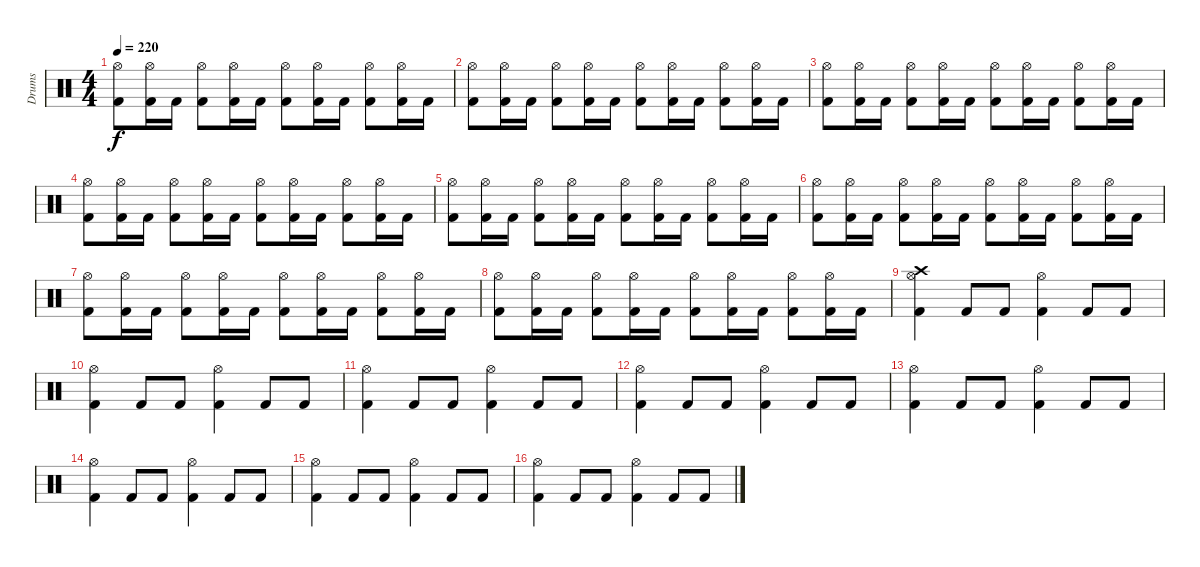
\track ("Drums" "Drums") {instrument percussion}
\staff {score}
\articulation defaults
\ts (4 4)
\tempo 220
\clef neutral
\ks c
("Hi-Hat (open)" "Kick (hit) 2").8{dy f} ("Hi-Hat (open)" "Kick (hit) 2").16 "Kick (hit) 2".16 ("Hi-Hat (open)" "Kick (hit) 2").8 ("Hi-Hat (open)" "Kick (hit) 2").16 "Kick (hit) 2".16 ("Hi-Hat (open)" "Kick (hit) 2").8 ("Hi-Hat (open)" "Kick (hit) 2").16 "Kick (hit) 2".16 ("Hi-Hat (open)" "Kick (hit) 2").8 ("Hi-Hat (open)" "Kick (hit) 2").16 "Kick (hit) 2".16 |
("Hi-Hat (open)" "Kick (hit) 2").8 ("Hi-Hat (open)" "Kick (hit) 2").16 "Kick (hit) 2".16 ("Hi-Hat (open)" "Kick (hit) 2").8 ("Hi-Hat (open)" "Kick (hit) 2").16 "Kick (hit) 2".16 ("Hi-Hat (open)" "Kick (hit) 2").8 ("Hi-Hat (open)" "Kick (hit) 2").16 "Kick (hit) 2".16 ("Hi-Hat (open)" "Kick (hit) 2").8 ("Hi-Hat (open)" "Kick (hit) 2").16 "Kick (hit) 2".16 |
("Hi-Hat (open)" "Kick (hit) 2").8 ("Hi-Hat (open)" "Kick (hit) 2").16 "Kick (hit) 2".16 ("Hi-Hat (open)" "Kick (hit) 2").8 ("Hi-Hat (open)" "Kick (hit) 2").16 "Kick (hit) 2".16 ("Hi-Hat (open)" "Kick (hit) 2").8 ("Hi-Hat (open)" "Kick (hit) 2").16 "Kick (hit) 2".16 ("Hi-Hat (open)" "Kick (hit) 2").8 ("Hi-Hat (open)" "Kick (hit) 2").16 "Kick (hit) 2".16 |
("Hi-Hat (open)" "Kick (hit) 2").8 ("Hi-Hat (open)" "Kick (hit) 2").16 "Kick (hit) 2".16 ("Hi-Hat (open)" "Kick (hit) 2").8 ("Hi-Hat (open)" "Kick (hit) 2").16 "Kick (hit) 2".16 ("Hi-Hat (open)" "Kick (hit) 2").8 ("Hi-Hat (open)" "Kick (hit) 2").16 "Kick (hit) 2".16 ("Hi-Hat (open)" "Kick (hit) 2").8 ("Hi-Hat (open)" "Kick (hit) 2").16 "Kick (hit) 2".16 |
("Hi-Hat (open)" "Kick (hit) 2").8 ("Hi-Hat (open)" "Kick (hit) 2").16 "Kick (hit) 2".16 ("Hi-Hat (open)" "Kick (hit) 2").8 ("Hi-Hat (open)" "Kick (hit) 2").16 "Kick (hit) 2".16 ("Hi-Hat (open)" "Kick (hit) 2").8 ("Hi-Hat (open)" "Kick (hit) 2").16 "Kick (hit) 2".16 ("Hi-Hat (open)" "Kick (hit) 2").8 ("Hi-Hat (open)" "Kick (hit) 2").16 "Kick (hit) 2".16 |
("Hi-Hat (open)" "Kick (hit) 2").8 ("Hi-Hat (open)" "Kick (hit) 2").16 "Kick (hit) 2".16 ("Hi-Hat (open)" "Kick (hit) 2").8 ("Hi-Hat (open)" "Kick (hit) 2").16 "Kick (hit) 2".16 ("Hi-Hat (open)" "Kick (hit) 2").8 ("Hi-Hat (open)" "Kick (hit) 2").16 "Kick (hit) 2".16 ("Hi-Hat (open)" "Kick (hit) 2").8 ("Hi-Hat (open)" "Kick (hit) 2").16 "Kick (hit) 2".16 |
("Hi-Hat (open)" "Kick (hit) 2").8 ("Hi-Hat (open)" "Kick (hit) 2").16 "Kick (hit) 2".16 ("Hi-Hat (open)" "Kick (hit) 2").8 ("Hi-Hat (open)" "Kick (hit) 2").16 "Kick (hit) 2".16 ("Hi-Hat (open)" "Kick (hit) 2").8 ("Hi-Hat (open)" "Kick (hit) 2").16 "Kick (hit) 2".16 ("Hi-Hat (open)" "Kick (hit) 2").8 ("Hi-Hat (open)" "Kick (hit) 2").16 "Kick (hit) 2".16 |
("Hi-Hat (open)" "Kick (hit) 2").8 ("Hi-Hat (open)" "Kick (hit) 2").16 "Kick (hit) 2".16 ("Hi-Hat (open)" "Kick (hit) 2").8 ("Hi-Hat (open)" "Kick (hit) 2").16 "Kick (hit) 2".16 ("Hi-Hat (open)" "Kick (hit) 2").8 ("Hi-Hat (open)" "Kick (hit) 2").16 "Kick (hit) 2".16 ("Hi-Hat (open)" "Kick (hit) 2").8 ("Hi-Hat (open)" "Kick (hit) 2").16 "Kick (hit) 2".16 |
("Crash high (hit)" "Hi-Hat (open)" "Kick (hit) 2").4 "Kick (hit) 2".8 "Kick (hit) 2".8 ("Hi-Hat (open)" "Kick (hit) 2").4 "Kick (hit) 2".8 "Kick (hit) 2".8 |
("Hi-Hat (open)" "Kick (hit) 2").4 "Kick (hit) 2".8 "Kick (hit) 2".8 ("Hi-Hat (open)" "Kick (hit) 2").4 "Kick (hit) 2".8 "Kick (hit) 2".8 |
("Hi-Hat (open)" "Kick (hit) 2").4 "Kick (hit) 2".8 "Kick (hit) 2".8 ("Hi-Hat (open)" "Kick (hit) 2").4 "Kick (hit) 2".8 "Kick (hit) 2".8 |
("Hi-Hat (open)" "Kick (hit) 2").4 "Kick (hit) 2".8 "Kick (hit) 2".8 ("Hi-Hat (open)" "Kick (hit) 2").4 "Kick (hit) 2".8 "Kick (hit) 2".8 |
("Hi-Hat (open)" "Kick (hit) 2").4 "Kick (hit) 2".8 "Kick (hit) 2".8 ("Hi-Hat (open)" "Kick (hit) 2").4 "Kick (hit) 2".8 "Kick (hit) 2".8 |
("Hi-Hat (open)" "Kick (hit) 2").4 "Kick (hit) 2".8 "Kick (hit) 2".8 ("Hi-Hat (open)" "Kick (hit) 2").4 "Kick (hit) 2".8 "Kick (hit) 2".8 |
("Hi-Hat (open)" "Kick (hit) 2").4 "Kick (hit) 2".8 "Kick (hit) 2".8 ("Hi-Hat (open)" "Kick (hit) 2").4 "Kick (hit) 2".8 "Kick (hit) 2".8 |
("Hi-Hat (open)" "Kick (hit) 2").4 "Kick (hit) 2".8 "Kick (hit) 2".8 ("Hi-Hat (open)" "Kick (hit) 2").4 "Kick (hit) 2".8 "Kick (hit) 2".8
